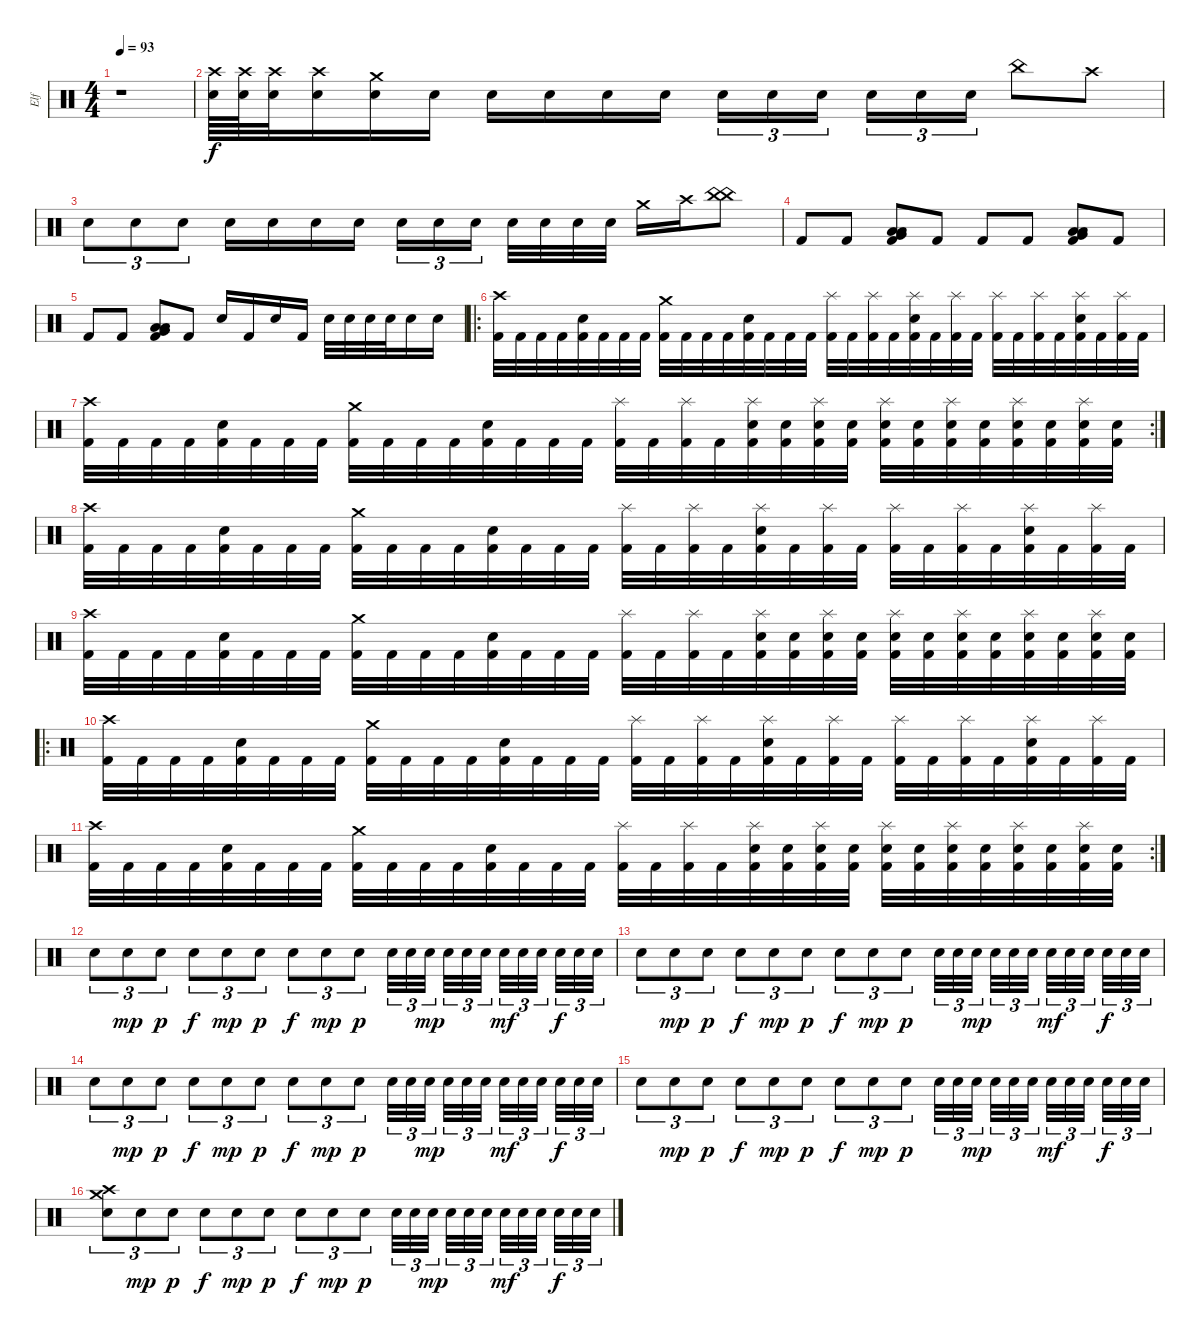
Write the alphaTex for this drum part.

\track ("Elf" "Elf") {instrument percussion}
\staff {score}
\articulation defaults
\ts (4 4)
\tempo 93
\clef neutral
\ks c
r.1{dy f} |
("Crash high (hit)" "Snare (hit) 2").64 ("Crash high (hit)" "Snare (hit) 2").64 ("Crash high (hit)" "Snare (hit) 2").32 ("Crash high (hit)" "Snare (hit) 2").16 ("Crash medium (hit)" "Snare (hit) 2").16 "Snare (hit) 2".16 "Snare (hit) 2".16 "Snare (hit) 2".16 "Snare (hit) 2".16 "Snare (hit) 2".16 "Snare (hit) 2".16{tu (3 2)} "Snare (hit) 2".16{tu (3 2)} "Snare (hit) 2".16{tu (3 2)} "Snare (hit) 2".16{tu (3 2)} "Snare (hit) 2".16{tu (3 2)} "Snare (hit) 2".16{tu (3 2)} "China (hit)".8 "Crash high (hit)".8 |
"Snare (hit) 2".8{tu (3 2)} "Snare (hit) 2".8{tu (3 2)} "Snare (hit) 2".8{tu (3 2)} "Snare (hit) 2".16 "Snare (hit) 2".16 "Snare (hit) 2".16 "Snare (hit) 2".16 "Snare (hit) 2".16{tu (3 2)} "Snare (hit) 2".16{tu (3 2)} "Snare (hit) 2".16{tu (3 2)} "Snare (hit) 2".32 "Snare (hit) 2".32 "Snare (hit) 2".32 "Snare (hit) 2".32 "Crash medium (hit)".16 "Crash high (hit)".16 ("China (hit)" "China (hit)").8 |
"Kick (hit) 2".8 "Kick (hit) 2".8 ("Very Low Tom (hit)" "Low Tom (hit)" "Kick (hit) 2" "Low Floor Tom (hit)").8 "Kick (hit) 2".8 "Kick (hit) 2".8 "Kick (hit) 2".8 ("Very Low Tom (hit)" "Low Tom (hit)" "Kick (hit) 2" "Low Floor Tom (hit)").8 "Kick (hit) 2".8 |
"Kick (hit) 2".8 "Kick (hit) 2".8 ("Very Low Tom (hit)" "Low Tom (hit)" "Kick (hit) 2" "Low Floor Tom (hit)").8 "Kick (hit) 2".8 "Snare (hit) 2".16 "Kick (hit) 2".16 "Snare (hit) 2".16 "Kick (hit) 2".16 "Snare (hit) 2".32 "Snare (hit) 2".32 "Snare (hit) 2".32 "Snare (hit) 2".32 "Snare (hit) 2".16 "Snare (hit) 2".16 |
\ro
("Crash high (hit)" "Kick (hit) 2").32{volume 12} "Kick (hit) 2".32 "Kick (hit) 2".32 "Kick (hit) 2".32 ("Snare (hit) 2" "Kick (hit) 2").32 "Kick (hit) 2".32 "Kick (hit) 2".32 "Kick (hit) 2".32 ("Crash medium (hit)" "Kick (hit) 2").32 "Kick (hit) 2".32 "Kick (hit) 2".32 "Kick (hit) 2".32 ("Snare (hit) 2" "Kick (hit) 2").32 "Kick (hit) 2".32 "Kick (hit) 2".32 "Kick (hit) 2".32 ("Splash (hit)" "Kick (hit) 2").32 "Kick (hit) 2".32 ("Splash (hit)" "Kick (hit) 2").32 "Kick (hit) 2".32 ("Splash (hit)" "Snare (hit) 2" "Kick (hit) 2").32 "Kick (hit) 2".32 ("Splash (hit)" "Kick (hit) 2").32 "Kick (hit) 2".32 ("Splash (hit)" "Kick (hit) 2").32 "Kick (hit) 2".32 ("Splash (hit)" "Kick (hit) 2").32 "Kick (hit) 2".32 ("Splash (hit)" "Snare (hit) 2" "Kick (hit) 2").32 "Kick (hit) 2".32 ("Splash (hit)" "Kick (hit) 2").32 "Kick (hit) 2".32 |
\rc 2
("Crash high (hit)" "Kick (hit) 2").32 "Kick (hit) 2".32 "Kick (hit) 2".32 "Kick (hit) 2".32 ("Snare (hit) 2" "Kick (hit) 2").32 "Kick (hit) 2".32 "Kick (hit) 2".32 "Kick (hit) 2".32 ("Crash medium (hit)" "Kick (hit) 2").32 "Kick (hit) 2".32 "Kick (hit) 2".32 "Kick (hit) 2".32 ("Snare (hit) 2" "Kick (hit) 2").32 "Kick (hit) 2".32 "Kick (hit) 2".32 "Kick (hit) 2".32 ("Splash (hit)" "Kick (hit) 2").32 "Kick (hit) 2".32 ("Splash (hit)" "Kick (hit) 2").32 "Kick (hit) 2".32 ("Splash (hit)" "Snare (hit) 2" "Kick (hit) 2").32 ("Snare (hit) 2" "Kick (hit) 2").32 ("Splash (hit)" "Snare (hit) 2" "Kick (hit) 2").32 ("Snare (hit) 2" "Kick (hit) 2").32 ("Splash (hit)" "Snare (hit) 2" "Kick (hit) 2").32 ("Snare (hit) 2" "Kick (hit) 2").32 ("Splash (hit)" "Snare (hit) 2" "Kick (hit) 2").32 ("Snare (hit) 2" "Kick (hit) 2").32 ("Splash (hit)" "Snare (hit) 2" "Kick (hit) 2").32 ("Snare (hit) 2" "Kick (hit) 2").32 ("Splash (hit)" "Snare (hit) 2" "Kick (hit) 2").32 ("Snare (hit) 2" "Kick (hit) 2").32 |
("Crash high (hit)" "Kick (hit) 2").32{volume 7} "Kick (hit) 2".32 "Kick (hit) 2".32 "Kick (hit) 2".32 ("Snare (hit) 2" "Kick (hit) 2").32 "Kick (hit) 2".32 "Kick (hit) 2".32 "Kick (hit) 2".32 ("Crash medium (hit)" "Kick (hit) 2").32 "Kick (hit) 2".32 "Kick (hit) 2".32 "Kick (hit) 2".32 ("Snare (hit) 2" "Kick (hit) 2").32 "Kick (hit) 2".32 "Kick (hit) 2".32 "Kick (hit) 2".32 ("Splash (hit)" "Kick (hit) 2").32 "Kick (hit) 2".32 ("Splash (hit)" "Kick (hit) 2").32 "Kick (hit) 2".32 ("Splash (hit)" "Snare (hit) 2" "Kick (hit) 2").32 "Kick (hit) 2".32 ("Splash (hit)" "Kick (hit) 2").32 "Kick (hit) 2".32 ("Splash (hit)" "Kick (hit) 2").32 "Kick (hit) 2".32 ("Splash (hit)" "Kick (hit) 2").32 "Kick (hit) 2".32 ("Splash (hit)" "Snare (hit) 2" "Kick (hit) 2").32 "Kick (hit) 2".32 ("Splash (hit)" "Kick (hit) 2").32 "Kick (hit) 2".32 |
("Crash high (hit)" "Kick (hit) 2").32 "Kick (hit) 2".32 "Kick (hit) 2".32 "Kick (hit) 2".32 ("Snare (hit) 2" "Kick (hit) 2").32 "Kick (hit) 2".32 "Kick (hit) 2".32 "Kick (hit) 2".32 ("Crash medium (hit)" "Kick (hit) 2").32 "Kick (hit) 2".32 "Kick (hit) 2".32 "Kick (hit) 2".32 ("Snare (hit) 2" "Kick (hit) 2").32{volume 13} "Kick (hit) 2".32 "Kick (hit) 2".32 "Kick (hit) 2".32 ("Splash (hit)" "Kick (hit) 2").32 "Kick (hit) 2".32 ("Splash (hit)" "Kick (hit) 2").32 "Kick (hit) 2".32 ("Splash (hit)" "Snare (hit) 2" "Kick (hit) 2").32 ("Snare (hit) 2" "Kick (hit) 2").32 ("Splash (hit)" "Snare (hit) 2" "Kick (hit) 2").32 ("Snare (hit) 2" "Kick (hit) 2").32 ("Splash (hit)" "Snare (hit) 2" "Kick (hit) 2").32 ("Snare (hit) 2" "Kick (hit) 2").32 ("Splash (hit)" "Snare (hit) 2" "Kick (hit) 2").32 ("Snare (hit) 2" "Kick (hit) 2").32 ("Splash (hit)" "Snare (hit) 2" "Kick (hit) 2").32 ("Snare (hit) 2" "Kick (hit) 2").32 ("Splash (hit)" "Snare (hit) 2" "Kick (hit) 2").32 ("Snare (hit) 2" "Kick (hit) 2").32 |
\ro
("Crash high (hit)" "Kick (hit) 2").32 "Kick (hit) 2".32 "Kick (hit) 2".32 "Kick (hit) 2".32 ("Snare (hit) 2" "Kick (hit) 2").32 "Kick (hit) 2".32 "Kick (hit) 2".32 "Kick (hit) 2".32 ("Crash medium (hit)" "Kick (hit) 2").32 "Kick (hit) 2".32 "Kick (hit) 2".32 "Kick (hit) 2".32 ("Snare (hit) 2" "Kick (hit) 2").32 "Kick (hit) 2".32 "Kick (hit) 2".32 "Kick (hit) 2".32 ("Splash (hit)" "Kick (hit) 2").32 "Kick (hit) 2".32 ("Splash (hit)" "Kick (hit) 2").32 "Kick (hit) 2".32 ("Splash (hit)" "Snare (hit) 2" "Kick (hit) 2").32 "Kick (hit) 2".32 ("Splash (hit)" "Kick (hit) 2").32 "Kick (hit) 2".32 ("Splash (hit)" "Kick (hit) 2").32 "Kick (hit) 2".32 ("Splash (hit)" "Kick (hit) 2").32 "Kick (hit) 2".32 ("Splash (hit)" "Snare (hit) 2" "Kick (hit) 2").32 "Kick (hit) 2".32 ("Splash (hit)" "Kick (hit) 2").32 "Kick (hit) 2".32 |
\rc 2
("Crash high (hit)" "Kick (hit) 2").32 "Kick (hit) 2".32 "Kick (hit) 2".32 "Kick (hit) 2".32 ("Snare (hit) 2" "Kick (hit) 2").32 "Kick (hit) 2".32 "Kick (hit) 2".32 "Kick (hit) 2".32 ("Crash medium (hit)" "Kick (hit) 2").32 "Kick (hit) 2".32 "Kick (hit) 2".32 "Kick (hit) 2".32 ("Snare (hit) 2" "Kick (hit) 2").32 "Kick (hit) 2".32 "Kick (hit) 2".32 "Kick (hit) 2".32 ("Splash (hit)" "Kick (hit) 2").32 "Kick (hit) 2".32 ("Splash (hit)" "Kick (hit) 2").32 "Kick (hit) 2".32 ("Splash (hit)" "Snare (hit) 2" "Kick (hit) 2").32 ("Snare (hit) 2" "Kick (hit) 2").32 ("Splash (hit)" "Snare (hit) 2" "Kick (hit) 2").32 ("Snare (hit) 2" "Kick (hit) 2").32 ("Splash (hit)" "Snare (hit) 2" "Kick (hit) 2").32 ("Snare (hit) 2" "Kick (hit) 2").32 ("Splash (hit)" "Snare (hit) 2" "Kick (hit) 2").32 ("Snare (hit) 2" "Kick (hit) 2").32 ("Splash (hit)" "Snare (hit) 2" "Kick (hit) 2").32 ("Snare (hit) 2" "Kick (hit) 2").32 ("Splash (hit)" "Snare (hit) 2" "Kick (hit) 2").32 ("Snare (hit) 2" "Kick (hit) 2").32 |
"Snare (hit) 2".8{tu (3 2)} "Snare (hit) 2".8{tu (3 2) dy mp} "Snare (hit) 2".8{tu (3 2) dy p} "Snare (hit) 2".8{tu (3 2) dy f} "Snare (hit) 2".8{tu (3 2) dy mp} "Snare (hit) 2".8{tu (3 2) dy p} "Snare (hit) 2".8{tu (3 2) dy f} "Snare (hit) 2".8{tu (3 2) dy mp} "Snare (hit) 2".8{tu (3 2) dy p} "Snare (hit) 2".32{tu (3 2)} "Snare (hit) 2".32{tu (3 2)} "Snare (hit) 2".32{tu (3 2) dy mp} "Snare (hit) 2".32{tu (3 2)} "Snare (hit) 2".32{tu (3 2)} "Snare (hit) 2".32{tu (3 2)} "Snare (hit) 2".32{tu (3 2) dy mf} "Snare (hit) 2".32{tu (3 2)} "Snare (hit) 2".32{tu (3 2)} "Snare (hit) 2".32{tu (3 2) dy f} "Snare (hit) 2".32{tu (3 2)} "Snare (hit) 2".32{tu (3 2)} |
"Snare (hit) 2".8{tu (3 2)} "Snare (hit) 2".8{tu (3 2) dy mp} "Snare (hit) 2".8{tu (3 2) dy p} "Snare (hit) 2".8{tu (3 2) dy f} "Snare (hit) 2".8{tu (3 2) dy mp} "Snare (hit) 2".8{tu (3 2) dy p} "Snare (hit) 2".8{tu (3 2) dy f} "Snare (hit) 2".8{tu (3 2) dy mp} "Snare (hit) 2".8{tu (3 2) dy p} "Snare (hit) 2".32{tu (3 2)} "Snare (hit) 2".32{tu (3 2)} "Snare (hit) 2".32{tu (3 2) dy mp} "Snare (hit) 2".32{tu (3 2)} "Snare (hit) 2".32{tu (3 2)} "Snare (hit) 2".32{tu (3 2)} "Snare (hit) 2".32{tu (3 2) dy mf} "Snare (hit) 2".32{tu (3 2)} "Snare (hit) 2".32{tu (3 2)} "Snare (hit) 2".32{tu (3 2) dy f} "Snare (hit) 2".32{tu (3 2)} "Snare (hit) 2".32{tu (3 2)} |
"Snare (hit) 2".8{tu (3 2)} "Snare (hit) 2".8{tu (3 2) dy mp} "Snare (hit) 2".8{tu (3 2) dy p} "Snare (hit) 2".8{tu (3 2) dy f} "Snare (hit) 2".8{tu (3 2) dy mp} "Snare (hit) 2".8{tu (3 2) dy p} "Snare (hit) 2".8{tu (3 2) dy f} "Snare (hit) 2".8{tu (3 2) dy mp} "Snare (hit) 2".8{tu (3 2) dy p} "Snare (hit) 2".32{tu (3 2)} "Snare (hit) 2".32{tu (3 2)} "Snare (hit) 2".32{tu (3 2) dy mp} "Snare (hit) 2".32{tu (3 2)} "Snare (hit) 2".32{tu (3 2)} "Snare (hit) 2".32{tu (3 2)} "Snare (hit) 2".32{tu (3 2) dy mf} "Snare (hit) 2".32{tu (3 2)} "Snare (hit) 2".32{tu (3 2)} "Snare (hit) 2".32{tu (3 2) dy f} "Snare (hit) 2".32{tu (3 2)} "Snare (hit) 2".32{tu (3 2)} |
"Snare (hit) 2".8{tu (3 2)} "Snare (hit) 2".8{tu (3 2) dy mp} "Snare (hit) 2".8{tu (3 2) dy p} "Snare (hit) 2".8{tu (3 2) dy f} "Snare (hit) 2".8{tu (3 2) dy mp} "Snare (hit) 2".8{tu (3 2) dy p} "Snare (hit) 2".8{tu (3 2) dy f} "Snare (hit) 2".8{tu (3 2) dy mp} "Snare (hit) 2".8{tu (3 2) dy p} "Snare (hit) 2".32{tu (3 2)} "Snare (hit) 2".32{tu (3 2)} "Snare (hit) 2".32{tu (3 2) dy mp} "Snare (hit) 2".32{tu (3 2)} "Snare (hit) 2".32{tu (3 2)} "Snare (hit) 2".32{tu (3 2)} "Snare (hit) 2".32{tu (3 2) dy mf} "Snare (hit) 2".32{tu (3 2)} "Snare (hit) 2".32{tu (3 2)} "Snare (hit) 2".32{tu (3 2) dy f} "Snare (hit) 2".32{tu (3 2)} "Snare (hit) 2".32{tu (3 2)} |
("Crash medium (hit)" "Crash high (hit)" "Snare (hit) 2").8{tu (3 2)} "Snare (hit) 2".8{tu (3 2) dy mp} "Snare (hit) 2".8{tu (3 2) dy p} "Snare (hit) 2".8{tu (3 2) dy f} "Snare (hit) 2".8{tu (3 2) dy mp} "Snare (hit) 2".8{tu (3 2) dy p} "Snare (hit) 2".8{tu (3 2) dy f} "Snare (hit) 2".8{tu (3 2) dy mp} "Snare (hit) 2".8{tu (3 2) dy p} "Snare (hit) 2".32{tu (3 2)} "Snare (hit) 2".32{tu (3 2)} "Snare (hit) 2".32{tu (3 2) dy mp} "Snare (hit) 2".32{tu (3 2)} "Snare (hit) 2".32{tu (3 2)} "Snare (hit) 2".32{tu (3 2)} "Snare (hit) 2".32{tu (3 2) dy mf} "Snare (hit) 2".32{tu (3 2)} "Snare (hit) 2".32{tu (3 2)} "Snare (hit) 2".32{tu (3 2) dy f} "Snare (hit) 2".32{tu (3 2)} "Snare (hit) 2".32{tu (3 2)}
